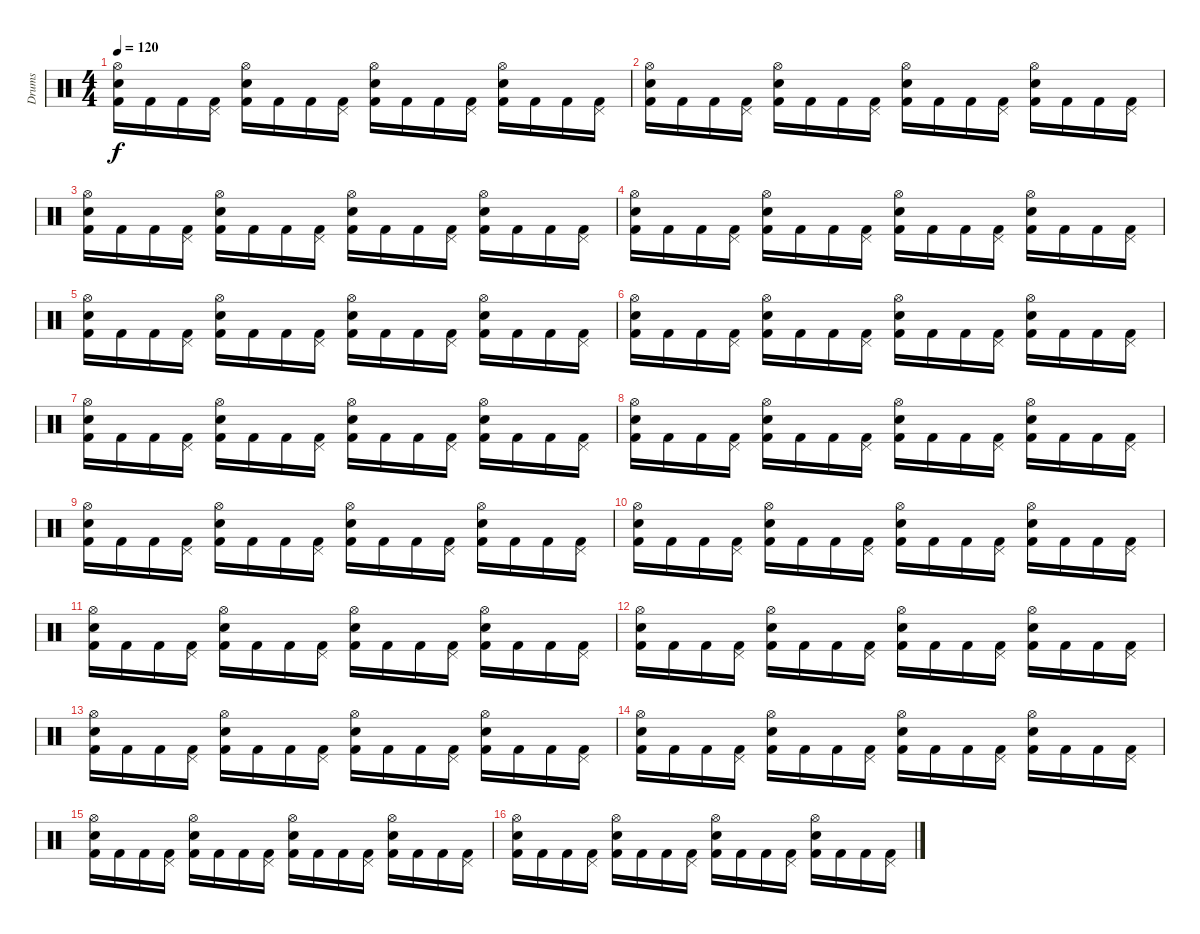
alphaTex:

\track ("Drums" "Drums") {instrument percussion}
\staff {score}
\articulation defaults
\ts (4 4)
\tempo 120
\clef neutral
\ks c
("Hi-Hat (open)" "Snare (hit) 2" "Kick (hit) 2").16{dy f} "Kick (hit) 2".16 "Kick (hit) 2".16 ("Pedal Hi-Hat (hit)" "Kick (hit) 2").16 ("Hi-Hat (open)" "Snare (hit) 2" "Kick (hit) 2").16 "Kick (hit) 2".16 "Kick (hit) 2".16 ("Pedal Hi-Hat (hit)" "Kick (hit) 2").16 ("Hi-Hat (open)" "Snare (hit) 2" "Kick (hit) 2").16 "Kick (hit) 2".16 "Kick (hit) 2".16 ("Pedal Hi-Hat (hit)" "Kick (hit) 2").16 ("Hi-Hat (open)" "Snare (hit) 2" "Kick (hit) 2").16 "Kick (hit) 2".16 "Kick (hit) 2".16 ("Pedal Hi-Hat (hit)" "Kick (hit) 2").16 |
("Hi-Hat (open)" "Snare (hit) 2" "Kick (hit) 2").16 "Kick (hit) 2".16 "Kick (hit) 2".16 ("Pedal Hi-Hat (hit)" "Kick (hit) 2").16 ("Hi-Hat (open)" "Snare (hit) 2" "Kick (hit) 2").16 "Kick (hit) 2".16 "Kick (hit) 2".16 ("Pedal Hi-Hat (hit)" "Kick (hit) 2").16 ("Hi-Hat (open)" "Snare (hit) 2" "Kick (hit) 2").16 "Kick (hit) 2".16 "Kick (hit) 2".16 ("Pedal Hi-Hat (hit)" "Kick (hit) 2").16 ("Hi-Hat (open)" "Snare (hit) 2" "Kick (hit) 2").16 "Kick (hit) 2".16 "Kick (hit) 2".16 ("Pedal Hi-Hat (hit)" "Kick (hit) 2").16 |
("Hi-Hat (open)" "Snare (hit) 2" "Kick (hit) 2").16 "Kick (hit) 2".16 "Kick (hit) 2".16 ("Pedal Hi-Hat (hit)" "Kick (hit) 2").16 ("Hi-Hat (open)" "Snare (hit) 2" "Kick (hit) 2").16 "Kick (hit) 2".16 "Kick (hit) 2".16 ("Pedal Hi-Hat (hit)" "Kick (hit) 2").16 ("Hi-Hat (open)" "Snare (hit) 2" "Kick (hit) 2").16 "Kick (hit) 2".16 "Kick (hit) 2".16 ("Pedal Hi-Hat (hit)" "Kick (hit) 2").16 ("Hi-Hat (open)" "Snare (hit) 2" "Kick (hit) 2").16 "Kick (hit) 2".16 "Kick (hit) 2".16 ("Pedal Hi-Hat (hit)" "Kick (hit) 2").16 |
("Hi-Hat (open)" "Snare (hit) 2" "Kick (hit) 2").16 "Kick (hit) 2".16 "Kick (hit) 2".16 ("Pedal Hi-Hat (hit)" "Kick (hit) 2").16 ("Hi-Hat (open)" "Snare (hit) 2" "Kick (hit) 2").16 "Kick (hit) 2".16 "Kick (hit) 2".16 ("Pedal Hi-Hat (hit)" "Kick (hit) 2").16 ("Hi-Hat (open)" "Snare (hit) 2" "Kick (hit) 2").16 "Kick (hit) 2".16 "Kick (hit) 2".16 ("Pedal Hi-Hat (hit)" "Kick (hit) 2").16 ("Hi-Hat (open)" "Snare (hit) 2" "Kick (hit) 2").16 "Kick (hit) 2".16 "Kick (hit) 2".16 ("Pedal Hi-Hat (hit)" "Kick (hit) 2").16 |
("Hi-Hat (open)" "Snare (hit) 2" "Kick (hit) 2").16 "Kick (hit) 2".16 "Kick (hit) 2".16 ("Pedal Hi-Hat (hit)" "Kick (hit) 2").16 ("Hi-Hat (open)" "Snare (hit) 2" "Kick (hit) 2").16 "Kick (hit) 2".16 "Kick (hit) 2".16 ("Pedal Hi-Hat (hit)" "Kick (hit) 2").16 ("Hi-Hat (open)" "Snare (hit) 2" "Kick (hit) 2").16 "Kick (hit) 2".16 "Kick (hit) 2".16 ("Pedal Hi-Hat (hit)" "Kick (hit) 2").16 ("Hi-Hat (open)" "Snare (hit) 2" "Kick (hit) 2").16 "Kick (hit) 2".16 "Kick (hit) 2".16 ("Pedal Hi-Hat (hit)" "Kick (hit) 2").16 |
("Hi-Hat (open)" "Snare (hit) 2" "Kick (hit) 2").16 "Kick (hit) 2".16 "Kick (hit) 2".16 ("Pedal Hi-Hat (hit)" "Kick (hit) 2").16 ("Hi-Hat (open)" "Snare (hit) 2" "Kick (hit) 2").16 "Kick (hit) 2".16 "Kick (hit) 2".16 ("Pedal Hi-Hat (hit)" "Kick (hit) 2").16 ("Hi-Hat (open)" "Snare (hit) 2" "Kick (hit) 2").16 "Kick (hit) 2".16 "Kick (hit) 2".16 ("Pedal Hi-Hat (hit)" "Kick (hit) 2").16 ("Hi-Hat (open)" "Snare (hit) 2" "Kick (hit) 2").16 "Kick (hit) 2".16 "Kick (hit) 2".16 ("Pedal Hi-Hat (hit)" "Kick (hit) 2").16 |
("Hi-Hat (open)" "Snare (hit) 2" "Kick (hit) 2").16 "Kick (hit) 2".16 "Kick (hit) 2".16 ("Pedal Hi-Hat (hit)" "Kick (hit) 2").16 ("Hi-Hat (open)" "Snare (hit) 2" "Kick (hit) 2").16 "Kick (hit) 2".16 "Kick (hit) 2".16 ("Pedal Hi-Hat (hit)" "Kick (hit) 2").16 ("Hi-Hat (open)" "Snare (hit) 2" "Kick (hit) 2").16 "Kick (hit) 2".16 "Kick (hit) 2".16 ("Pedal Hi-Hat (hit)" "Kick (hit) 2").16 ("Hi-Hat (open)" "Snare (hit) 2" "Kick (hit) 2").16 "Kick (hit) 2".16 "Kick (hit) 2".16 ("Pedal Hi-Hat (hit)" "Kick (hit) 2").16 |
("Hi-Hat (open)" "Snare (hit) 2" "Kick (hit) 2").16 "Kick (hit) 2".16 "Kick (hit) 2".16 ("Pedal Hi-Hat (hit)" "Kick (hit) 2").16 ("Hi-Hat (open)" "Snare (hit) 2" "Kick (hit) 2").16 "Kick (hit) 2".16 "Kick (hit) 2".16 ("Pedal Hi-Hat (hit)" "Kick (hit) 2").16 ("Hi-Hat (open)" "Snare (hit) 2" "Kick (hit) 2").16 "Kick (hit) 2".16 "Kick (hit) 2".16 ("Pedal Hi-Hat (hit)" "Kick (hit) 2").16 ("Hi-Hat (open)" "Snare (hit) 2" "Kick (hit) 2").16 "Kick (hit) 2".16 "Kick (hit) 2".16 ("Pedal Hi-Hat (hit)" "Kick (hit) 2").16 |
("Hi-Hat (open)" "Snare (hit) 2" "Kick (hit) 2").16 "Kick (hit) 2".16 "Kick (hit) 2".16 ("Pedal Hi-Hat (hit)" "Kick (hit) 2").16 ("Hi-Hat (open)" "Snare (hit) 2" "Kick (hit) 2").16 "Kick (hit) 2".16 "Kick (hit) 2".16 ("Pedal Hi-Hat (hit)" "Kick (hit) 2").16 ("Hi-Hat (open)" "Snare (hit) 2" "Kick (hit) 2").16 "Kick (hit) 2".16 "Kick (hit) 2".16 ("Pedal Hi-Hat (hit)" "Kick (hit) 2").16 ("Hi-Hat (open)" "Snare (hit) 2" "Kick (hit) 2").16 "Kick (hit) 2".16 "Kick (hit) 2".16 ("Pedal Hi-Hat (hit)" "Kick (hit) 2").16 |
("Hi-Hat (open)" "Snare (hit) 2" "Kick (hit) 2").16 "Kick (hit) 2".16 "Kick (hit) 2".16 ("Pedal Hi-Hat (hit)" "Kick (hit) 2").16 ("Hi-Hat (open)" "Snare (hit) 2" "Kick (hit) 2").16 "Kick (hit) 2".16 "Kick (hit) 2".16 ("Pedal Hi-Hat (hit)" "Kick (hit) 2").16 ("Hi-Hat (open)" "Snare (hit) 2" "Kick (hit) 2").16 "Kick (hit) 2".16 "Kick (hit) 2".16 ("Pedal Hi-Hat (hit)" "Kick (hit) 2").16 ("Hi-Hat (open)" "Snare (hit) 2" "Kick (hit) 2").16 "Kick (hit) 2".16 "Kick (hit) 2".16 ("Pedal Hi-Hat (hit)" "Kick (hit) 2").16 |
("Hi-Hat (open)" "Snare (hit) 2" "Kick (hit) 2").16{volume 13} "Kick (hit) 2".16 "Kick (hit) 2".16 ("Pedal Hi-Hat (hit)" "Kick (hit) 2").16 ("Hi-Hat (open)" "Snare (hit) 2" "Kick (hit) 2").16 "Kick (hit) 2".16 "Kick (hit) 2".16 ("Pedal Hi-Hat (hit)" "Kick (hit) 2").16 ("Hi-Hat (open)" "Snare (hit) 2" "Kick (hit) 2").16 "Kick (hit) 2".16 "Kick (hit) 2".16 ("Pedal Hi-Hat (hit)" "Kick (hit) 2").16 ("Hi-Hat (open)" "Snare (hit) 2" "Kick (hit) 2").16 "Kick (hit) 2".16 "Kick (hit) 2".16 ("Pedal Hi-Hat (hit)" "Kick (hit) 2").16 |
("Hi-Hat (open)" "Snare (hit) 2" "Kick (hit) 2").16 "Kick (hit) 2".16 "Kick (hit) 2".16 ("Pedal Hi-Hat (hit)" "Kick (hit) 2").16 ("Hi-Hat (open)" "Snare (hit) 2" "Kick (hit) 2").16 "Kick (hit) 2".16 "Kick (hit) 2".16 ("Pedal Hi-Hat (hit)" "Kick (hit) 2").16 ("Hi-Hat (open)" "Snare (hit) 2" "Kick (hit) 2").16 "Kick (hit) 2".16 "Kick (hit) 2".16 ("Pedal Hi-Hat (hit)" "Kick (hit) 2").16 ("Hi-Hat (open)" "Snare (hit) 2" "Kick (hit) 2").16 "Kick (hit) 2".16 "Kick (hit) 2".16 ("Pedal Hi-Hat (hit)" "Kick (hit) 2").16 |
("Hi-Hat (open)" "Snare (hit) 2" "Kick (hit) 2").16 "Kick (hit) 2".16 "Kick (hit) 2".16 ("Pedal Hi-Hat (hit)" "Kick (hit) 2").16 ("Hi-Hat (open)" "Snare (hit) 2" "Kick (hit) 2").16 "Kick (hit) 2".16 "Kick (hit) 2".16 ("Pedal Hi-Hat (hit)" "Kick (hit) 2").16 ("Hi-Hat (open)" "Snare (hit) 2" "Kick (hit) 2").16 "Kick (hit) 2".16 "Kick (hit) 2".16 ("Pedal Hi-Hat (hit)" "Kick (hit) 2").16 ("Hi-Hat (open)" "Snare (hit) 2" "Kick (hit) 2").16 "Kick (hit) 2".16 "Kick (hit) 2".16 ("Pedal Hi-Hat (hit)" "Kick (hit) 2").16 |
("Hi-Hat (open)" "Snare (hit) 2" "Kick (hit) 2").16 "Kick (hit) 2".16 "Kick (hit) 2".16 ("Pedal Hi-Hat (hit)" "Kick (hit) 2").16 ("Hi-Hat (open)" "Snare (hit) 2" "Kick (hit) 2").16 "Kick (hit) 2".16 "Kick (hit) 2".16 ("Pedal Hi-Hat (hit)" "Kick (hit) 2").16 ("Hi-Hat (open)" "Snare (hit) 2" "Kick (hit) 2").16 "Kick (hit) 2".16 "Kick (hit) 2".16 ("Pedal Hi-Hat (hit)" "Kick (hit) 2").16 ("Hi-Hat (open)" "Snare (hit) 2" "Kick (hit) 2").16 "Kick (hit) 2".16 "Kick (hit) 2".16 ("Pedal Hi-Hat (hit)" "Kick (hit) 2").16 |
("Hi-Hat (open)" "Snare (hit) 2" "Kick (hit) 2").16{volume 9} "Kick (hit) 2".16 "Kick (hit) 2".16 ("Pedal Hi-Hat (hit)" "Kick (hit) 2").16 ("Hi-Hat (open)" "Snare (hit) 2" "Kick (hit) 2").16 "Kick (hit) 2".16 "Kick (hit) 2".16 ("Pedal Hi-Hat (hit)" "Kick (hit) 2").16 ("Hi-Hat (open)" "Snare (hit) 2" "Kick (hit) 2").16 "Kick (hit) 2".16 "Kick (hit) 2".16 ("Pedal Hi-Hat (hit)" "Kick (hit) 2").16 ("Hi-Hat (open)" "Snare (hit) 2" "Kick (hit) 2").16 "Kick (hit) 2".16 "Kick (hit) 2".16 ("Pedal Hi-Hat (hit)" "Kick (hit) 2").16 |
("Hi-Hat (open)" "Snare (hit) 2" "Kick (hit) 2").16 "Kick (hit) 2".16 "Kick (hit) 2".16 ("Pedal Hi-Hat (hit)" "Kick (hit) 2").16 ("Hi-Hat (open)" "Snare (hit) 2" "Kick (hit) 2").16 "Kick (hit) 2".16 "Kick (hit) 2".16 ("Pedal Hi-Hat (hit)" "Kick (hit) 2").16 ("Hi-Hat (open)" "Snare (hit) 2" "Kick (hit) 2").16 "Kick (hit) 2".16 "Kick (hit) 2".16 ("Pedal Hi-Hat (hit)" "Kick (hit) 2").16 ("Hi-Hat (open)" "Snare (hit) 2" "Kick (hit) 2").16 "Kick (hit) 2".16 "Kick (hit) 2".16 ("Pedal Hi-Hat (hit)" "Kick (hit) 2").16
